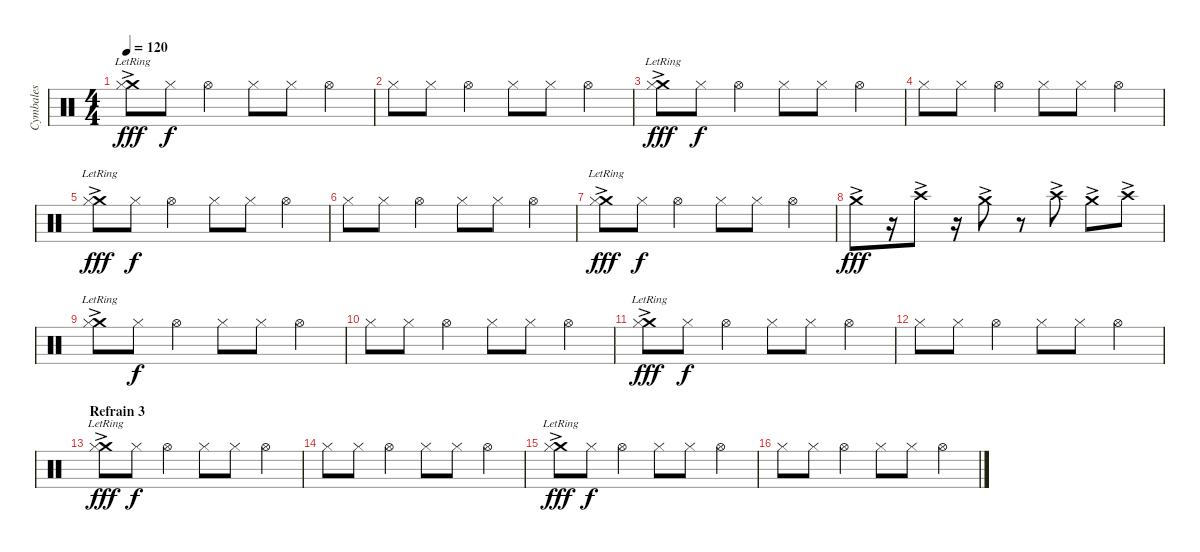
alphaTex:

\track ("Cymbales" "Cymbales") {instrument percussion}
\staff {score}
\articulation defaults
\ts (4 4)
\tempo 120
\clef neutral
\ks c
("Crash medium (hit)"{ac lr} "Hi-Hat (closed)").8{dy fff} "Hi-Hat (closed)".8{dy f} "Hi-Hat (open)".4 "Hi-Hat (closed)".8 "Hi-Hat (closed)".8 "Hi-Hat (open)".4 |
"Hi-Hat (closed)".8 "Hi-Hat (closed)".8 "Hi-Hat (open)".4 "Hi-Hat (closed)".8 "Hi-Hat (closed)".8 "Hi-Hat (open)".4 |
("Crash medium (hit)"{ac lr} "Hi-Hat (closed)").8{dy fff} "Hi-Hat (closed)".8{dy f} "Hi-Hat (open)".4 "Hi-Hat (closed)".8 "Hi-Hat (closed)".8 "Hi-Hat (open)".4 |
"Hi-Hat (closed)".8 "Hi-Hat (closed)".8 "Hi-Hat (open)".4 "Hi-Hat (closed)".8 "Hi-Hat (closed)".8 "Hi-Hat (open)".4 |
("Crash medium (hit)"{ac lr} "Hi-Hat (closed)").8{dy fff} "Hi-Hat (closed)".8{dy f} "Hi-Hat (open)".4 "Hi-Hat (closed)".8 "Hi-Hat (closed)".8 "Hi-Hat (open)".4 |
"Hi-Hat (closed)".8 "Hi-Hat (closed)".8 "Hi-Hat (open)".4 "Hi-Hat (closed)".8 "Hi-Hat (closed)".8 "Hi-Hat (open)".4 |
("Crash medium (hit)"{ac lr} "Hi-Hat (closed)").8{dy fff} "Hi-Hat (closed)".8{dy f} "Hi-Hat (open)".4 "Hi-Hat (closed)".8 "Hi-Hat (closed)".8 "Hi-Hat (open)".4 |
"Crash medium (hit)"{ac}.8{dy fff} r.16 "Crash high (hit)"{ac}.8 r.16 "Crash medium (hit)"{ac}.8 r.8 "Crash high (hit)"{ac}.8 "Crash medium (hit)"{ac}.8 "Crash high (hit)"{ac}.8 |
("Crash medium (hit)"{ac lr} "Hi-Hat (closed)").8 "Hi-Hat (closed)".8{dy f} "Hi-Hat (open)".4 "Hi-Hat (closed)".8 "Hi-Hat (closed)".8 "Hi-Hat (open)".4 |
"Hi-Hat (closed)".8 "Hi-Hat (closed)".8 "Hi-Hat (open)".4 "Hi-Hat (closed)".8 "Hi-Hat (closed)".8 "Hi-Hat (open)".4 |
("Crash medium (hit)"{ac lr} "Hi-Hat (closed)").8{dy fff} "Hi-Hat (closed)".8{dy f} "Hi-Hat (open)".4 "Hi-Hat (closed)".8 "Hi-Hat (closed)".8 "Hi-Hat (open)".4 |
"Hi-Hat (closed)".8 "Hi-Hat (closed)".8 "Hi-Hat (open)".4 "Hi-Hat (closed)".8 "Hi-Hat (closed)".8 "Hi-Hat (open)".4 |
\section ("" "Refrain 3")
("Crash medium (hit)"{ac lr} "Hi-Hat (closed)").8{dy fff} "Hi-Hat (closed)".8{dy f} "Hi-Hat (open)".4 "Hi-Hat (closed)".8 "Hi-Hat (closed)".8 "Hi-Hat (open)".4 |
"Hi-Hat (closed)".8 "Hi-Hat (closed)".8 "Hi-Hat (open)".4 "Hi-Hat (closed)".8 "Hi-Hat (closed)".8 "Hi-Hat (open)".4 |
("Crash medium (hit)"{ac lr} "Hi-Hat (closed)").8{dy fff} "Hi-Hat (closed)".8{dy f} "Hi-Hat (open)".4 "Hi-Hat (closed)".8 "Hi-Hat (closed)".8 "Hi-Hat (open)".4 |
"Hi-Hat (closed)".8 "Hi-Hat (closed)".8 "Hi-Hat (open)".4 "Hi-Hat (closed)".8 "Hi-Hat (closed)".8 "Hi-Hat (open)".4
